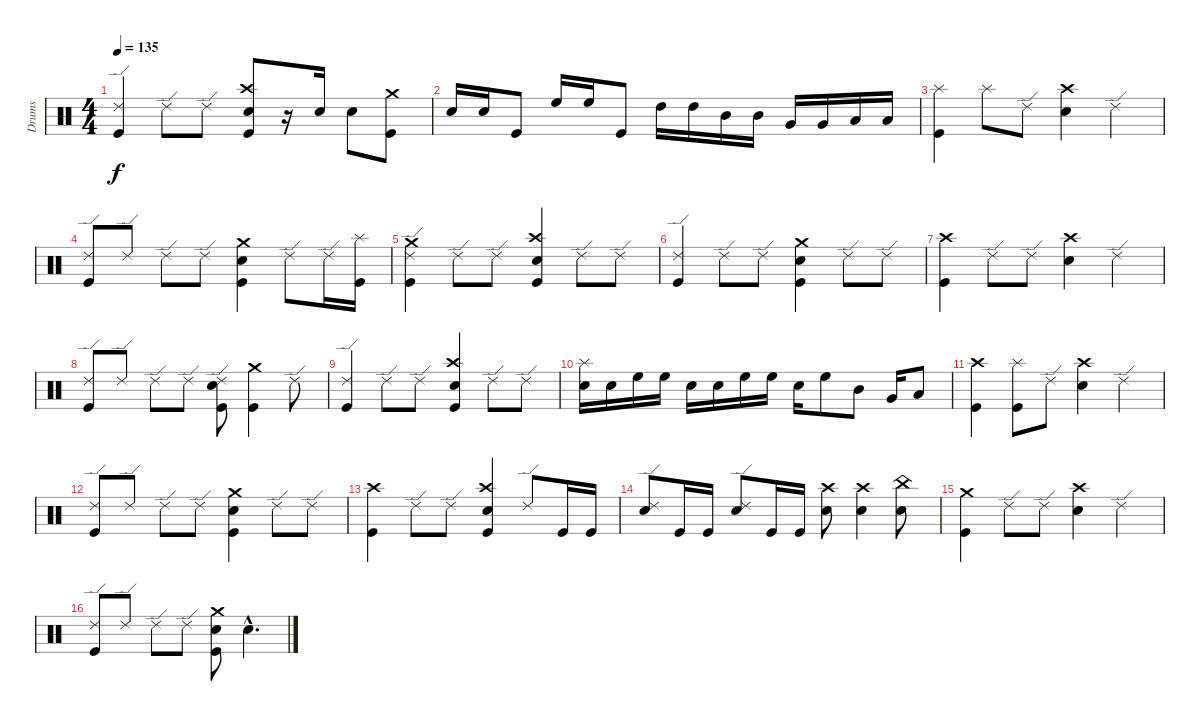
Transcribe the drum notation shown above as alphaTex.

\track ("Drums" "Drums") {instrument percussion}
\staff {score}
\articulation defaults
\ts (4 4)
\tempo 135
\clef neutral
\ks c
("Ride (edge) 2" "Kick (hit)").4{dy f} "Ride (edge) 2".8 "Ride (edge) 2".8 ("Crash high (hit)" "Snare (hit) 2" "Kick (hit)").8 r.16 "Snare (hit) 2".16 "Snare (hit) 2".8 ("Crash medium (hit)" "Kick (hit)").8 |
"Snare (hit) 2".16 "Snare (hit) 2".16 "Kick (hit)".8 "High Floor Tom (hit)".16 "High Floor Tom (hit)".16 "Kick (hit)".8 "High Tom (hit)".16 "High Tom (hit)".16 "Mid Tom (hit)".16 "Mid Tom (hit)".16 "Very Low Tom (hit)".16 "Very Low Tom (hit)".16 "Low Floor Tom (hit)".16 "Low Floor Tom (hit)".16 |
("Splash (hit)" "Kick (hit)").4 "Splash (hit)".8 "Ride (edge) 2".8 ("Crash high (hit)" "Snare (hit) 2").4 "Ride (edge) 2".4 |
("Ride (edge) 2" "Kick (hit)").8 "Ride (edge) 2".8 "Ride (edge) 2".8 "Ride (edge) 2".8 ("Crash medium (hit)" "Snare (hit) 2" "Kick (hit)").4 "Ride (edge) 2".8 "Ride (edge) 2".16 ("Splash (hit)" "Kick (hit)").16 |
("Crash medium (hit)" "Ride (edge) 2" "Kick (hit)").4 "Ride (edge) 2".8 "Ride (edge) 2".8 ("Crash high (hit)" "Snare (hit) 2" "Kick (hit)").4 "Ride (edge) 2".8 "Ride (edge) 2".8 |
("Ride (edge) 2" "Kick (hit)").4 "Ride (edge) 2".8 "Ride (edge) 2".8 ("Crash medium (hit)" "Snare (hit) 2" "Kick (hit)").4 "Ride (edge) 2".8 "Ride (edge) 2".8 |
("Crash high (hit)" "Kick (hit)").4 "Ride (edge) 2".8 "Ride (edge) 2".8 ("Crash high (hit)" "Snare (hit) 2").4 "Ride (edge) 2".4 |
("Ride (edge) 2" "Kick (hit)").8 "Ride (edge) 2".8 "Ride (edge) 2".8 "Ride (edge) 2".8 ("Ride (edge) 2" "Snare (hit) 2" "Kick (hit)").8 ("Crash medium (hit)" "Kick (hit)").4 "Ride (edge) 2".8 |
("Ride (edge) 2" "Kick (hit)").4 "Ride (edge) 2".8 "Ride (edge) 2".8 ("Crash high (hit)" "Snare (hit) 2" "Kick (hit)").4 "Ride (edge) 2".8 "Ride (edge) 2".8 |
("Splash (hit)" "Snare (hit) 2").16 "Snare (hit) 2".16 "High Floor Tom (hit)".16 "High Floor Tom (hit)".16 "Snare (hit) 2".16 "Snare (hit) 2".16 "High Floor Tom (hit)".16 "High Floor Tom (hit)".16 "Snare (hit) 2".16 "High Floor Tom (hit)".8 "Mid Tom (hit)".8 "Very Low Tom (hit)".16 "Low Floor Tom (hit)".8 |
("Crash high (hit)" "Kick (hit)").4 ("Splash (hit)" "Kick (hit)").8 "Ride (edge) 2".8 ("Crash high (hit)" "Snare (hit) 2").4 "Ride (edge) 2".4 |
("Ride (edge) 2" "Kick (hit)").8 "Ride (edge) 2".8 "Ride (edge) 2".8 "Ride (edge) 2".8 ("Crash medium (hit)" "Snare (hit) 2" "Kick (hit)").4 "Ride (edge) 2".8 "Ride (edge) 2".8 |
("Crash high (hit)" "Kick (hit)").4 "Ride (edge) 2".8 "Ride (edge) 2".8 ("Crash high (hit)" "Snare (hit) 2" "Kick (hit)").4 "Ride (edge) 2".8 "Kick (hit)".16 "Kick (hit)".16 |
("Ride (edge) 2" "Snare (hit) 2").8 "Kick (hit)".16 "Kick (hit)".16 ("Ride (edge) 2" "Snare (hit) 2").8 "Kick (hit)".16 "Kick (hit)".16 ("Crash high (hit)" "Snare (hit) 2").8 ("Crash high (hit)" "Snare (hit) 2").4 ("China (hit)" "Snare (hit) 2").8 |
("Crash medium (hit)" "Kick (hit)").4 "Ride (edge) 2".8 "Ride (edge) 2".8 ("Crash high (hit)" "Snare (hit) 2").4 "Ride (edge) 2".4 |
("Ride (edge) 2" "Kick (hit)").8 "Ride (edge) 2".8 "Ride (edge) 2".8 "Ride (edge) 2".8 ("Crash medium (hit)" "Snare (hit) 2" "Kick (hit)").8 "Snare (hit) 2"{hac}.4{d}
